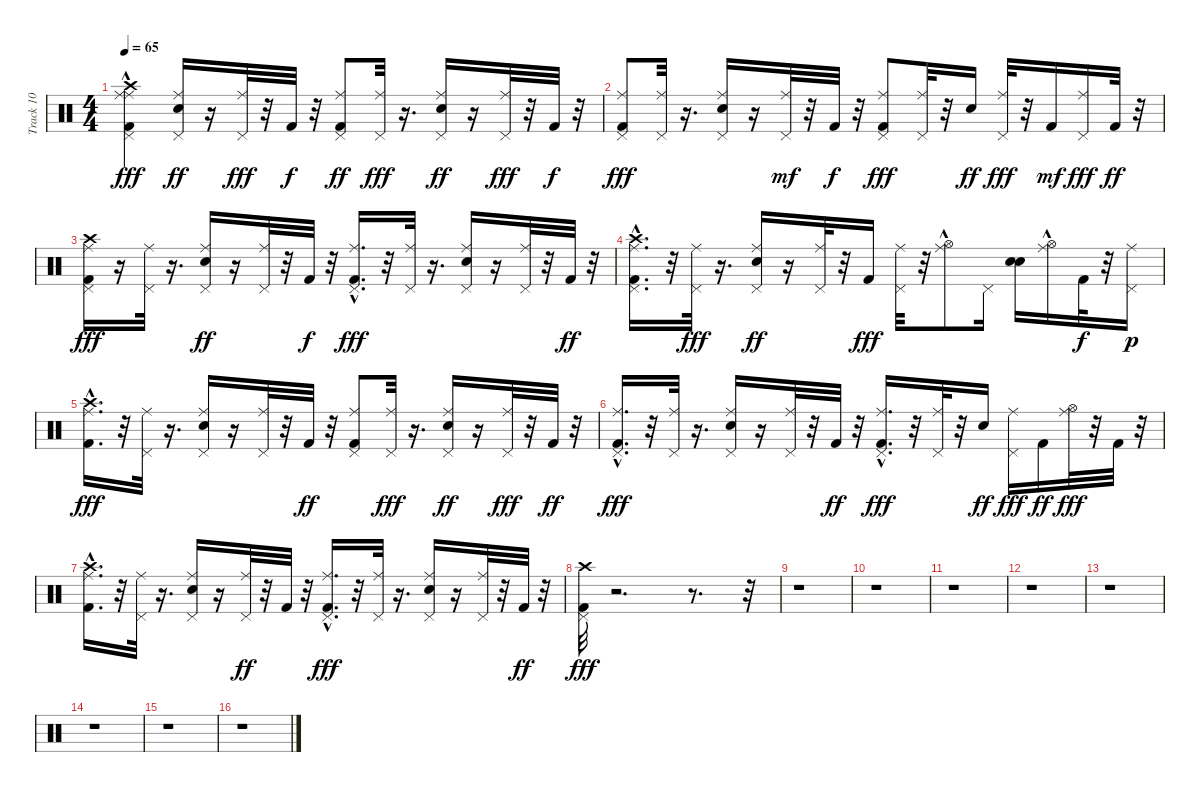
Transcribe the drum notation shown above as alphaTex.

\track ("Track 10" "Track 10") {instrument percussion}
\staff {score}
\articulation defaults
\ts (4 4)
\tempo 65
\clef neutral
\ks c
("Ride (middle)" "Pedal Hi-Hat (hit)" "Kick (hit) 2"{hac} "Crash high (hit)" "Ride (middle)").4{dy fff} ("Electric Snare (hit)" "Pedal Hi-Hat (hit)" "Ride (middle)").16{dy ff} r.16 ("Pedal Hi-Hat (hit)" "Ride (middle)").32{dy fff} r.32 "Kick (hit) 2".32{dy f} r.32 ("Pedal Hi-Hat (hit)" "Kick (hit) 2" "Ride (middle)").8{dy ff} ("Ride (middle)" "Pedal Hi-Hat (hit)").32{dy fff} r.16{d} ("Pedal Hi-Hat (hit)" "Ride (middle)" "Electric Snare (hit)").16{dy ff} r.16 ("Pedal Hi-Hat (hit)" "Ride (middle)").32{dy fff} r.32 "Kick (hit) 2".32{dy f} r.32 |
("Kick (hit) 2" "Ride (middle)" "Pedal Hi-Hat (hit)").8{dy fff} ("Ride (middle)" "Pedal Hi-Hat (hit)").32 r.16{d} ("Electric Snare (hit)" "Pedal Hi-Hat (hit)" "Ride (middle)").16 r.16 ("Pedal Hi-Hat (hit)" "Ride (middle)").32{dy mf} r.32 "Kick (hit) 2".32{dy f} r.32 ("Kick (hit) 2" "Ride (middle)" "Pedal Hi-Hat (hit)").8{dy fff} ("Pedal Hi-Hat (hit)" "Ride (middle)").32 r.32 "Electric Snare (hit)".16{dy ff} ("Ride (middle)" "Pedal Hi-Hat (hit)").32{dy fff} r.32 "Kick (hit) 2".16{dy mf} ("Pedal Hi-Hat (hit)" "Ride (middle)").16{dy fff} "Kick (hit) 2".32{dy ff} r.32 |
("Kick (hit) 2" "Pedal Hi-Hat (hit)" "Crash high (hit)" "Ride (middle)").16{dy fff} r.16 ("Ride (middle)" "Pedal Hi-Hat (hit)").32 r.16{d} ("Pedal Hi-Hat (hit)" "Ride (middle)" "Electric Snare (hit)").16{dy ff} r.16 ("Pedal Hi-Hat (hit)" "Ride (middle)").32 r.32 "Kick (hit) 2".32{dy f} r.32 ("Kick (hit) 2"{hac} "Ride (middle)" "Pedal Hi-Hat (hit)").16{d dy fff} r.32 ("Ride (middle)" "Pedal Hi-Hat (hit)").32 r.16{d} ("Electric Snare (hit)" "Pedal Hi-Hat (hit)" "Ride (middle)").16 r.16 ("Ride (middle)" "Pedal Hi-Hat (hit)").32 r.32 "Kick (hit) 2".32{dy ff} r.32 |
("Kick (hit) 2"{hac} "Crash high (hit)" "Pedal Hi-Hat (hit)" "Ride (middle)").16{d} r.32 ("Ride (middle)" "Pedal Hi-Hat (hit)").32{dy fff} r.16{d} ("Electric Snare (hit)" "Pedal Hi-Hat (hit)" "Ride (middle)").16{dy ff} r.16 ("Pedal Hi-Hat (hit)" "Ride (middle)").32 r.32 "Kick (hit) 2".16{dy fff} ("Ride (middle)" "Pedal Hi-Hat (hit)").32 r.32 ("Hi-Hat (open)" "Ride (middle)"{hac}).8 "Pedal Hi-Hat (hit)".16 ("Snare (hit) 2" "Electric Snare (hit)").16 ("Hi-Hat (open)" "Ride (middle)"{hac}).16 "Kick (hit) 2".32{dy f} r.32 ("Pedal Hi-Hat (hit)" "Ride (middle)").16{dy p} |
("Kick (hit) 2"{hac} "Crash high (hit)" "Ride (middle)").16{d dy fff} r.32 ("Ride (middle)" "Pedal Hi-Hat (hit)").32 r.16{d} ("Electric Snare (hit)" "Ride (middle)" "Pedal Hi-Hat (hit)").16 r.16 ("Pedal Hi-Hat (hit)" "Ride (middle)").32 r.32 "Kick (hit) 2".32{dy ff} r.32 ("Kick (hit) 2" "Pedal Hi-Hat (hit)" "Ride (middle)").8 ("Ride (middle)" "Pedal Hi-Hat (hit)").32{dy fff} r.16{d} ("Electric Snare (hit)" "Pedal Hi-Hat (hit)" "Ride (middle)").16{dy ff} r.16 ("Pedal Hi-Hat (hit)" "Ride (middle)").32{dy fff} r.32 "Kick (hit) 2".32{dy ff} r.32 |
("Kick (hit) 2"{hac} "Ride (middle)" "Pedal Hi-Hat (hit)").16{d dy fff} r.32 ("Ride (middle)" "Pedal Hi-Hat (hit)").32 r.16{d} ("Pedal Hi-Hat (hit)" "Ride (middle)" "Electric Snare (hit)").16 r.16 ("Pedal Hi-Hat (hit)" "Ride (middle)").32 r.32 "Kick (hit) 2".32{dy ff} r.32 ("Kick (hit) 2"{hac} "Pedal Hi-Hat (hit)" "Ride (middle)").16{d dy fff} r.32 ("Pedal Hi-Hat (hit)" "Ride (middle)").32 r.32 "Electric Snare (hit)".16{dy ff} ("Pedal Hi-Hat (hit)" "Ride (middle)").16{dy fff} "Kick (hit) 2".16{dy ff} ("Hi-Hat (open)" "Ride (middle)").32{dy fff} r.32 "Kick (hit) 2".32 r.32 |
("Kick (hit) 2"{hac} "Crash high (hit)" "Ride (middle)").16{d} r.32 ("Ride (middle)" "Pedal Hi-Hat (hit)").32 r.16{d} ("Pedal Hi-Hat (hit)" "Electric Snare (hit)" "Ride (middle)").16 r.16 ("Pedal Hi-Hat (hit)" "Ride (middle)").32{dy ff} r.32 "Kick (hit) 2".32 r.32 ("Kick (hit) 2"{hac} "Pedal Hi-Hat (hit)" "Ride (middle)").16{d dy fff} r.32 ("Ride (middle)" "Pedal Hi-Hat (hit)").32 r.16{d} ("Pedal Hi-Hat (hit)" "Ride (middle)" "Electric Snare (hit)").16 r.16 ("Pedal Hi-Hat (hit)" "Ride (middle)").32 r.32 "Kick (hit) 2".32{dy ff} r.32 |
("Kick (hit) 2" "Pedal Hi-Hat (hit)" "Crash high (hit)").32{dy fff} r.2{d} r.8{d} r.32 |
r.1 |
r.1 |
r.1 |
r.1 |
r.1 |
r.1 |
r.1 |
r.1
